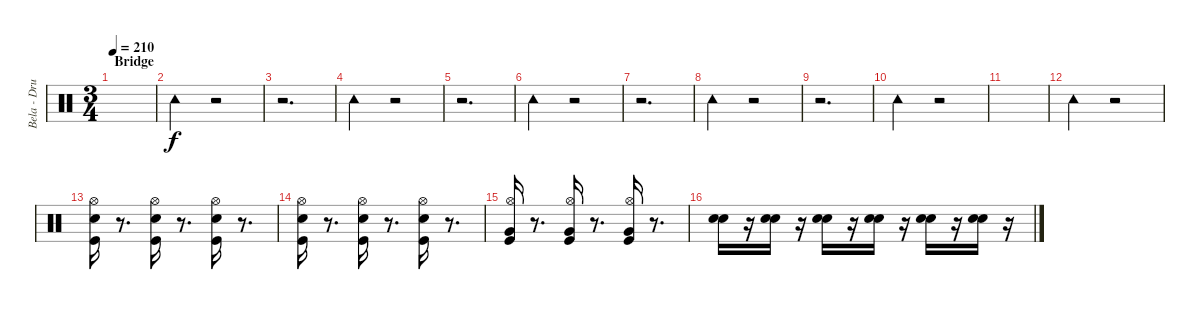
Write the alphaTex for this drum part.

\track ("Bela - Drums" "Bela - Dru") {instrument percussion}
\staff {score}
\articulation defaults
\ts (3 4)
\section ("" "Bridge")
\tempo 210
\clef neutral
\ks c
|
"Tambourine (hit)".4 r.2 |
r.2{d} |
"Tambourine (hit)".4 r.2 |
r.2{d} |
"Tambourine (hit)".4 r.2 |
r.2{d} |
"Tambourine (hit)".4 r.2 |
r.2{d} |
"Tambourine (hit)".4 r.2 |
|
"Tambourine (hit)".4 r.2 |
("Electric Snare (hit)" "Kick (hit)" "Hi-Hat (open)").16 r.8{d} ("Electric Snare (hit)" "Kick (hit)" "Hi-Hat (open)").16 r.8{d} ("Electric Snare (hit)" "Kick (hit)" "Hi-Hat (open)").16 r.8{d} |
("Electric Snare (hit)" "Kick (hit)" "Hi-Hat (open)").16 r.8{d} ("Electric Snare (hit)" "Kick (hit)" "Hi-Hat (open)").16 r.8{d} ("Electric Snare (hit)" "Kick (hit)" "Hi-Hat (open)").16 r.8{d} |
("Kick (hit)" "Hi-Hat (open)" "Very Low Tom (hit)").16 r.8{d} ("Kick (hit)" "Hi-Hat (open)" "Very Low Tom (hit)").16 r.8{d} ("Kick (hit)" "Hi-Hat (open)" "Very Low Tom (hit)").16 r.8{d} |
("Snare (hit) 2" "Electric Snare (hit)").16 r.16 ("Snare (hit) 2" "Electric Snare (hit)").16 r.16 ("Snare (hit) 2" "Electric Snare (hit)").16 r.16 ("Snare (hit) 2" "Electric Snare (hit)").16 r.16 ("Snare (hit) 2" "Electric Snare (hit)").16 r.16 ("Snare (hit) 2" "Electric Snare (hit)").16 r.16
